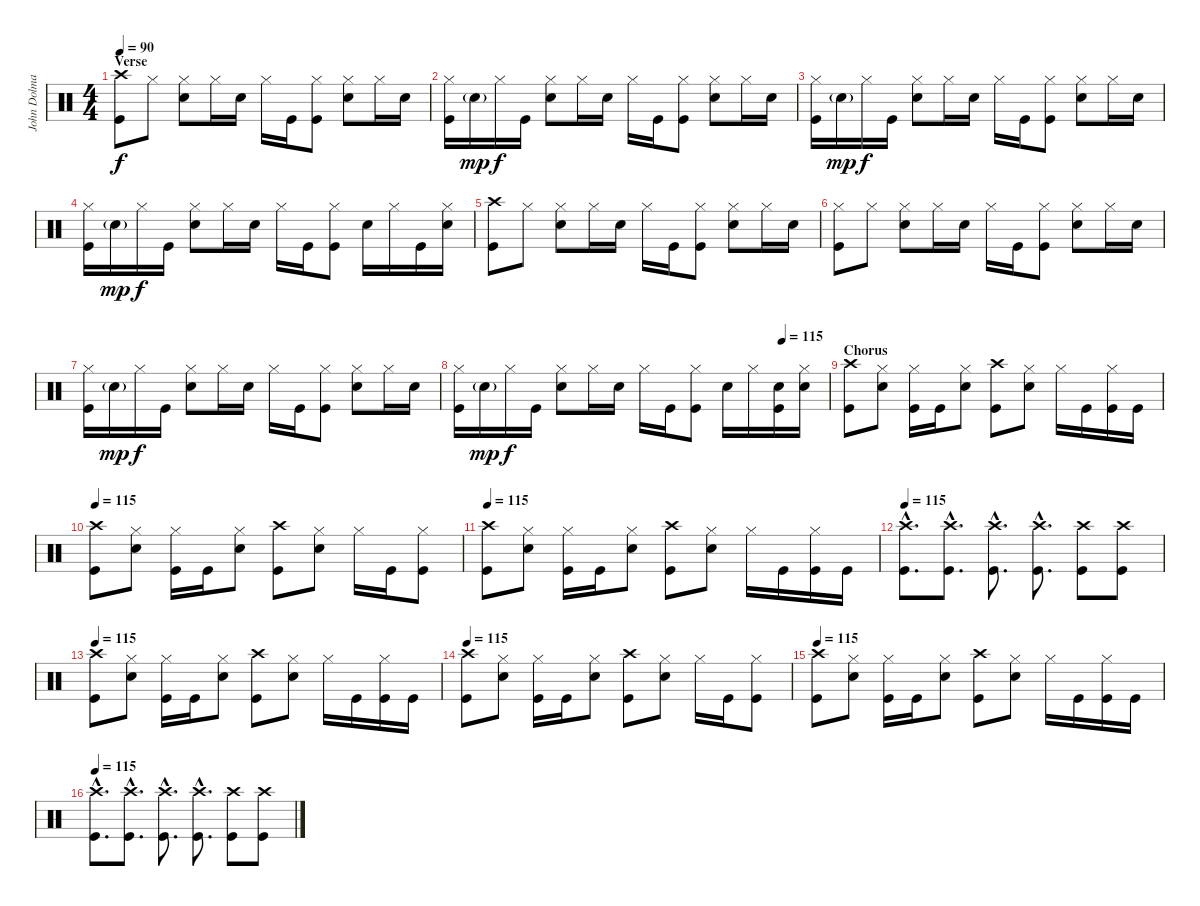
\track ("John Dolmayan " "John Dolma") {instrument percussion}
\staff {score}
\articulation defaults
\ts (4 4)
\section ("" "Verse")
\tempo 90
\clef neutral
\ks c
("Crash high (hit)" "Kick (hit)").8{dy f} "Hi-Hat (closed)".8 ("Hi-Hat (closed)" "Snare (hit) 2").8 "Hi-Hat (closed)".16 "Snare (hit) 2".16 "Hi-Hat (closed)".16 "Kick (hit)".16 ("Hi-Hat (closed)" "Kick (hit)").8 ("Hi-Hat (closed)" "Snare (hit) 2").8 "Hi-Hat (closed)".16 "Snare (hit) 2".16 |
("Hi-Hat (closed)" "Kick (hit)").16 "Snare (hit) 2"{g}.16{dy mp} "Hi-Hat (closed)".16{dy f} "Kick (hit)".16 ("Hi-Hat (closed)" "Snare (hit) 2").8 "Hi-Hat (closed)".16 "Snare (hit) 2".16 "Hi-Hat (closed)".16 "Kick (hit)".16 ("Hi-Hat (closed)" "Kick (hit)").8 ("Hi-Hat (closed)" "Snare (hit) 2").8 "Hi-Hat (closed)".16 "Snare (hit) 2".16 |
("Hi-Hat (closed)" "Kick (hit)").16 "Snare (hit) 2"{g}.16{dy mp} "Hi-Hat (closed)".16{dy f} "Kick (hit)".16 ("Hi-Hat (closed)" "Snare (hit) 2").8 "Hi-Hat (closed)".16 "Snare (hit) 2".16 "Hi-Hat (closed)".16 "Kick (hit)".16 ("Hi-Hat (closed)" "Kick (hit)").8 ("Hi-Hat (closed)" "Snare (hit) 2").8 "Hi-Hat (closed)".16 "Snare (hit) 2".16 |
("Hi-Hat (closed)" "Kick (hit)").16 "Snare (hit) 2"{g}.16{dy mp} "Hi-Hat (closed)".16{dy f} "Kick (hit)".16 ("Hi-Hat (closed)" "Snare (hit) 2").8 "Hi-Hat (closed)".16 "Snare (hit) 2".16 "Hi-Hat (closed)".16 "Kick (hit)".16 ("Hi-Hat (closed)" "Kick (hit)").8 "Snare (hit) 2".16 "Hi-Hat (closed)".16 "Kick (hit)".16 ("Hi-Hat (closed)" "Snare (hit) 2").16 |
("Crash high (hit)" "Kick (hit)").8 "Hi-Hat (closed)".8 ("Hi-Hat (closed)" "Snare (hit) 2").8 "Hi-Hat (closed)".16 "Snare (hit) 2".16 "Hi-Hat (closed)".16 "Kick (hit)".16 ("Hi-Hat (closed)" "Kick (hit)").8 ("Hi-Hat (closed)" "Snare (hit) 2").8 "Hi-Hat (closed)".16 "Snare (hit) 2".16 |
("Hi-Hat (closed)" "Kick (hit)").8 "Hi-Hat (closed)".8 ("Hi-Hat (closed)" "Snare (hit) 2").8 "Hi-Hat (closed)".16 "Snare (hit) 2".16 "Hi-Hat (closed)".16 "Kick (hit)".16 ("Hi-Hat (closed)" "Kick (hit)").8 ("Hi-Hat (closed)" "Snare (hit) 2").8 "Hi-Hat (closed)".16 "Snare (hit) 2".16 |
("Hi-Hat (closed)" "Kick (hit)").16 "Snare (hit) 2"{g}.16{dy mp} "Hi-Hat (closed)".16{dy f} "Kick (hit)".16 ("Hi-Hat (closed)" "Snare (hit) 2").8 "Hi-Hat (closed)".16 "Snare (hit) 2".16 "Hi-Hat (closed)".16 "Kick (hit)".16 ("Hi-Hat (closed)" "Kick (hit)").8 ("Hi-Hat (closed)" "Snare (hit) 2").8 "Hi-Hat (closed)".16 "Snare (hit) 2".16 |
\tempo (115 0.875)
("Hi-Hat (closed)" "Kick (hit)").16 "Snare (hit) 2"{g}.16{dy mp} "Hi-Hat (closed)".16{dy f} "Kick (hit)".16 ("Hi-Hat (closed)" "Snare (hit) 2").8 "Hi-Hat (closed)".16 "Snare (hit) 2".16 "Hi-Hat (closed)".16 "Kick (hit)".16 ("Hi-Hat (closed)" "Kick (hit)").8 "Snare (hit) 2".16 "Hi-Hat (closed)".16 ("Snare (hit) 2" "Kick (hit)").16 ("Hi-Hat (closed)" "Snare (hit) 2").16 |
\section ("" "Chorus")
("Crash high (hit)" "Kick (hit)").8 ("Hi-Hat (closed)" "Snare (hit) 2").8 ("Hi-Hat (closed)" "Kick (hit)").16 "Kick (hit)".16 ("Hi-Hat (closed)" "Snare (hit) 2").8 ("Crash high (hit)" "Kick (hit)").8 ("Hi-Hat (closed)" "Snare (hit) 2").8 "Hi-Hat (closed)".16 "Kick (hit)".16 ("Hi-Hat (closed)" "Kick (hit)").16 "Kick (hit)".16 |
\tempo 115
("Crash high (hit)" "Kick (hit)").8 ("Hi-Hat (closed)" "Snare (hit) 2").8 ("Hi-Hat (closed)" "Kick (hit)").16 "Kick (hit)".16 ("Hi-Hat (closed)" "Snare (hit) 2").8 ("Crash high (hit)" "Kick (hit)").8 ("Hi-Hat (closed)" "Snare (hit) 2").8 "Hi-Hat (closed)".16 "Kick (hit)".16 ("Hi-Hat (closed)" "Kick (hit)").8 |
\tempo 115
("Crash high (hit)" "Kick (hit)").8 ("Hi-Hat (closed)" "Snare (hit) 2").8 ("Hi-Hat (closed)" "Kick (hit)").16 "Kick (hit)".16 ("Hi-Hat (closed)" "Snare (hit) 2").8 ("Crash high (hit)" "Kick (hit)").8 ("Hi-Hat (closed)" "Snare (hit) 2").8 "Hi-Hat (closed)".16 "Kick (hit)".16 ("Hi-Hat (closed)" "Kick (hit)").16 "Kick (hit)".16 |
\tempo 115
("Crash high (hit)"{hac} "Kick (hit)"{hac}).8{d} ("Crash high (hit)"{hac} "Kick (hit)"{hac}).8{d} ("Crash high (hit)"{hac} "Kick (hit)"{hac}).8{d} ("Crash high (hit)"{hac} "Kick (hit)"{hac}).8{d} ("Crash high (hit)" "Kick (hit)").8 ("Crash high (hit)" "Kick (hit)").8 |
\tempo 115
("Crash high (hit)" "Kick (hit)").8 ("Hi-Hat (closed)" "Snare (hit) 2").8 ("Hi-Hat (closed)" "Kick (hit)").16 "Kick (hit)".16 ("Hi-Hat (closed)" "Snare (hit) 2").8 ("Crash high (hit)" "Kick (hit)").8 ("Hi-Hat (closed)" "Snare (hit) 2").8 "Hi-Hat (closed)".16 "Kick (hit)".16 ("Hi-Hat (closed)" "Kick (hit)").16 "Kick (hit)".16 |
\tempo 115
("Crash high (hit)" "Kick (hit)").8 ("Hi-Hat (closed)" "Snare (hit) 2").8 ("Hi-Hat (closed)" "Kick (hit)").16 "Kick (hit)".16 ("Hi-Hat (closed)" "Snare (hit) 2").8 ("Crash high (hit)" "Kick (hit)").8 ("Hi-Hat (closed)" "Snare (hit) 2").8 "Hi-Hat (closed)".16 "Kick (hit)".16 ("Hi-Hat (closed)" "Kick (hit)").8 |
\tempo 115
("Crash high (hit)" "Kick (hit)").8 ("Hi-Hat (closed)" "Snare (hit) 2").8 ("Hi-Hat (closed)" "Kick (hit)").16 "Kick (hit)".16 ("Hi-Hat (closed)" "Snare (hit) 2").8 ("Crash high (hit)" "Kick (hit)").8 ("Hi-Hat (closed)" "Snare (hit) 2").8 "Hi-Hat (closed)".16 "Kick (hit)".16 ("Hi-Hat (closed)" "Kick (hit)").16 "Kick (hit)".16 |
\tempo 115
("Crash high (hit)"{hac} "Kick (hit)"{hac}).8{d} ("Crash high (hit)"{hac} "Kick (hit)"{hac}).8{d} ("Crash high (hit)"{hac} "Kick (hit)"{hac}).8{d} ("Crash high (hit)"{hac} "Kick (hit)"{hac}).8{d} ("Crash high (hit)" "Kick (hit)").8 ("Crash high (hit)" "Kick (hit)").8
